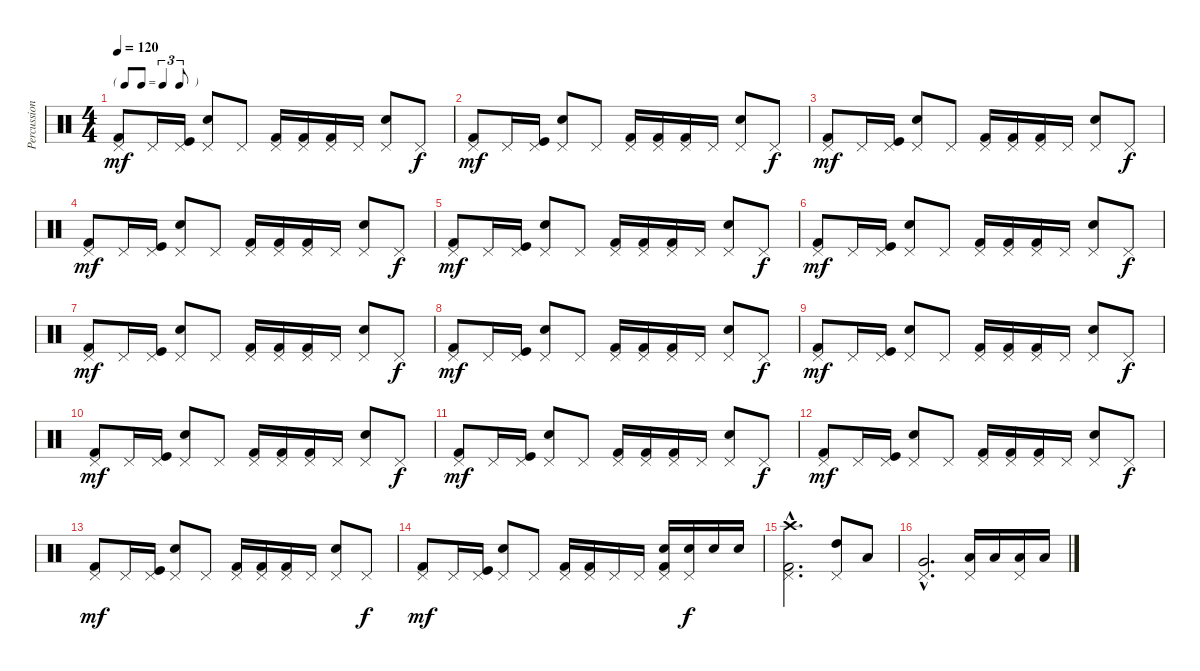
\track ("Percussions" "Percussion") {instrument percussion}
\staff {score}
\articulation defaults
\ts (4 4)
\tf triplet8th
\tempo 120
\clef neutral
\ks c
("Kick (hit) 2" "Pedal Hi-Hat (hit)").8{dy mf} "Pedal Hi-Hat (hit)".16 ("Kick (hit)" "Pedal Hi-Hat (hit)").16 ("Electric Snare (hit)" "Pedal Hi-Hat (hit)").8 "Pedal Hi-Hat (hit)".8 ("Kick (hit) 2" "Pedal Hi-Hat (hit)").16 ("Kick (hit) 2" "Pedal Hi-Hat (hit)").16 ("Kick (hit) 2" "Pedal Hi-Hat (hit)").16 "Pedal Hi-Hat (hit)".16 ("Electric Snare (hit)" "Pedal Hi-Hat (hit)").8 "Pedal Hi-Hat (hit)".8{dy f} |
("Kick (hit) 2" "Pedal Hi-Hat (hit)").8{dy mf} "Pedal Hi-Hat (hit)".16 ("Kick (hit)" "Pedal Hi-Hat (hit)").16 ("Electric Snare (hit)" "Pedal Hi-Hat (hit)").8 "Pedal Hi-Hat (hit)".8 ("Kick (hit) 2" "Pedal Hi-Hat (hit)").16 ("Kick (hit) 2" "Pedal Hi-Hat (hit)").16 ("Kick (hit) 2" "Pedal Hi-Hat (hit)").16 "Pedal Hi-Hat (hit)".16 ("Electric Snare (hit)" "Pedal Hi-Hat (hit)").8 "Pedal Hi-Hat (hit)".8{dy f} |
("Kick (hit) 2" "Pedal Hi-Hat (hit)").8{dy mf} "Pedal Hi-Hat (hit)".16 ("Kick (hit)" "Pedal Hi-Hat (hit)").16 ("Electric Snare (hit)" "Pedal Hi-Hat (hit)").8 "Pedal Hi-Hat (hit)".8 ("Kick (hit) 2" "Pedal Hi-Hat (hit)").16 ("Kick (hit) 2" "Pedal Hi-Hat (hit)").16 ("Kick (hit) 2" "Pedal Hi-Hat (hit)").16 "Pedal Hi-Hat (hit)".16 ("Electric Snare (hit)" "Pedal Hi-Hat (hit)").8 "Pedal Hi-Hat (hit)".8{dy f} |
("Kick (hit) 2" "Pedal Hi-Hat (hit)").8{dy mf} "Pedal Hi-Hat (hit)".16 ("Kick (hit)" "Pedal Hi-Hat (hit)").16 ("Electric Snare (hit)" "Pedal Hi-Hat (hit)").8 "Pedal Hi-Hat (hit)".8 ("Kick (hit) 2" "Pedal Hi-Hat (hit)").16 ("Kick (hit) 2" "Pedal Hi-Hat (hit)").16 ("Kick (hit) 2" "Pedal Hi-Hat (hit)").16 "Pedal Hi-Hat (hit)".16 ("Electric Snare (hit)" "Pedal Hi-Hat (hit)").8 "Pedal Hi-Hat (hit)".8{dy f} |
("Kick (hit) 2" "Pedal Hi-Hat (hit)").8{dy mf} "Pedal Hi-Hat (hit)".16 ("Kick (hit)" "Pedal Hi-Hat (hit)").16 ("Electric Snare (hit)" "Pedal Hi-Hat (hit)").8 "Pedal Hi-Hat (hit)".8 ("Kick (hit) 2" "Pedal Hi-Hat (hit)").16 ("Kick (hit) 2" "Pedal Hi-Hat (hit)").16 ("Kick (hit) 2" "Pedal Hi-Hat (hit)").16 "Pedal Hi-Hat (hit)".16 ("Electric Snare (hit)" "Pedal Hi-Hat (hit)").8 "Pedal Hi-Hat (hit)".8{dy f} |
("Kick (hit) 2" "Pedal Hi-Hat (hit)").8{dy mf} "Pedal Hi-Hat (hit)".16 ("Kick (hit)" "Pedal Hi-Hat (hit)").16 ("Electric Snare (hit)" "Pedal Hi-Hat (hit)").8 "Pedal Hi-Hat (hit)".8 ("Kick (hit) 2" "Pedal Hi-Hat (hit)").16 ("Kick (hit) 2" "Pedal Hi-Hat (hit)").16 ("Kick (hit) 2" "Pedal Hi-Hat (hit)").16 "Pedal Hi-Hat (hit)".16 ("Electric Snare (hit)" "Pedal Hi-Hat (hit)").8 "Pedal Hi-Hat (hit)".8{dy f} |
("Kick (hit) 2" "Pedal Hi-Hat (hit)").8{dy mf} "Pedal Hi-Hat (hit)".16 ("Kick (hit)" "Pedal Hi-Hat (hit)").16 ("Electric Snare (hit)" "Pedal Hi-Hat (hit)").8 "Pedal Hi-Hat (hit)".8 ("Kick (hit) 2" "Pedal Hi-Hat (hit)").16 ("Kick (hit) 2" "Pedal Hi-Hat (hit)").16 ("Kick (hit) 2" "Pedal Hi-Hat (hit)").16 "Pedal Hi-Hat (hit)".16 ("Electric Snare (hit)" "Pedal Hi-Hat (hit)").8 "Pedal Hi-Hat (hit)".8{dy f} |
("Kick (hit) 2" "Pedal Hi-Hat (hit)").8{dy mf} "Pedal Hi-Hat (hit)".16 ("Kick (hit)" "Pedal Hi-Hat (hit)").16 ("Electric Snare (hit)" "Pedal Hi-Hat (hit)").8 "Pedal Hi-Hat (hit)".8 ("Kick (hit) 2" "Pedal Hi-Hat (hit)").16 ("Kick (hit) 2" "Pedal Hi-Hat (hit)").16 ("Kick (hit) 2" "Pedal Hi-Hat (hit)").16 "Pedal Hi-Hat (hit)".16 ("Electric Snare (hit)" "Pedal Hi-Hat (hit)").8 "Pedal Hi-Hat (hit)".8{dy f} |
("Kick (hit) 2" "Pedal Hi-Hat (hit)").8{dy mf} "Pedal Hi-Hat (hit)".16 ("Kick (hit)" "Pedal Hi-Hat (hit)").16 ("Electric Snare (hit)" "Pedal Hi-Hat (hit)").8 "Pedal Hi-Hat (hit)".8 ("Kick (hit) 2" "Pedal Hi-Hat (hit)").16 ("Kick (hit) 2" "Pedal Hi-Hat (hit)").16 ("Kick (hit) 2" "Pedal Hi-Hat (hit)").16 "Pedal Hi-Hat (hit)".16 ("Electric Snare (hit)" "Pedal Hi-Hat (hit)").8 "Pedal Hi-Hat (hit)".8{dy f} |
("Kick (hit) 2" "Pedal Hi-Hat (hit)").8{dy mf} "Pedal Hi-Hat (hit)".16 ("Kick (hit)" "Pedal Hi-Hat (hit)").16 ("Electric Snare (hit)" "Pedal Hi-Hat (hit)").8 "Pedal Hi-Hat (hit)".8 ("Kick (hit) 2" "Pedal Hi-Hat (hit)").16 ("Kick (hit) 2" "Pedal Hi-Hat (hit)").16 ("Kick (hit) 2" "Pedal Hi-Hat (hit)").16 "Pedal Hi-Hat (hit)".16 ("Electric Snare (hit)" "Pedal Hi-Hat (hit)").8 "Pedal Hi-Hat (hit)".8{dy f} |
("Kick (hit) 2" "Pedal Hi-Hat (hit)").8{dy mf} "Pedal Hi-Hat (hit)".16 ("Kick (hit)" "Pedal Hi-Hat (hit)").16 ("Electric Snare (hit)" "Pedal Hi-Hat (hit)").8 "Pedal Hi-Hat (hit)".8 ("Kick (hit) 2" "Pedal Hi-Hat (hit)").16 ("Kick (hit) 2" "Pedal Hi-Hat (hit)").16 ("Kick (hit) 2" "Pedal Hi-Hat (hit)").16 "Pedal Hi-Hat (hit)".16 ("Electric Snare (hit)" "Pedal Hi-Hat (hit)").8 "Pedal Hi-Hat (hit)".8{dy f} |
("Kick (hit) 2" "Pedal Hi-Hat (hit)").8{dy mf} "Pedal Hi-Hat (hit)".16 ("Kick (hit)" "Pedal Hi-Hat (hit)").16 ("Electric Snare (hit)" "Pedal Hi-Hat (hit)").8 "Pedal Hi-Hat (hit)".8 ("Kick (hit) 2" "Pedal Hi-Hat (hit)").16 ("Kick (hit) 2" "Pedal Hi-Hat (hit)").16 ("Kick (hit) 2" "Pedal Hi-Hat (hit)").16 "Pedal Hi-Hat (hit)".16 ("Electric Snare (hit)" "Pedal Hi-Hat (hit)").8 "Pedal Hi-Hat (hit)".8{dy f} |
("Kick (hit) 2" "Pedal Hi-Hat (hit)").8{dy mf} "Pedal Hi-Hat (hit)".16 ("Kick (hit)" "Pedal Hi-Hat (hit)").16 ("Electric Snare (hit)" "Pedal Hi-Hat (hit)").8 "Pedal Hi-Hat (hit)".8 ("Kick (hit) 2" "Pedal Hi-Hat (hit)").16 ("Kick (hit) 2" "Pedal Hi-Hat (hit)").16 ("Kick (hit) 2" "Pedal Hi-Hat (hit)").16 "Pedal Hi-Hat (hit)".16 ("Electric Snare (hit)" "Pedal Hi-Hat (hit)").8 "Pedal Hi-Hat (hit)".8{dy f} |
("Kick (hit) 2" "Pedal Hi-Hat (hit)").8{dy mf} "Pedal Hi-Hat (hit)".16 ("Kick (hit)" "Pedal Hi-Hat (hit)").16 ("Electric Snare (hit)" "Pedal Hi-Hat (hit)").8 "Pedal Hi-Hat (hit)".8 ("Kick (hit) 2" "Pedal Hi-Hat (hit)").16 ("Kick (hit) 2" "Pedal Hi-Hat (hit)").16 "Pedal Hi-Hat (hit)".16 "Pedal Hi-Hat (hit)".16 ("Kick (hit) 2" "Electric Snare (hit)" "Pedal Hi-Hat (hit)").16 ("Electric Snare (hit)" "Pedal Hi-Hat (hit)").16{dy f} "Electric Snare (hit)".16 "Electric Snare (hit)".16 |
("Kick (hit) 2"{hac} "Crash high (hit)"{hac} "Pedal Hi-Hat (hit)"{hac}).2{d} ("High Tom (hit)" "Pedal Hi-Hat (hit)").8 "Low Tom (hit)".8 |
("Very Low Tom (hit)"{hac} "Pedal Hi-Hat (hit)"{hac}).2{d} ("Low Tom (hit)" "Pedal Hi-Hat (hit)").16 "Low Tom (hit)".16 ("Low Tom (hit)" "Pedal Hi-Hat (hit)").16 "Low Tom (hit)".16
